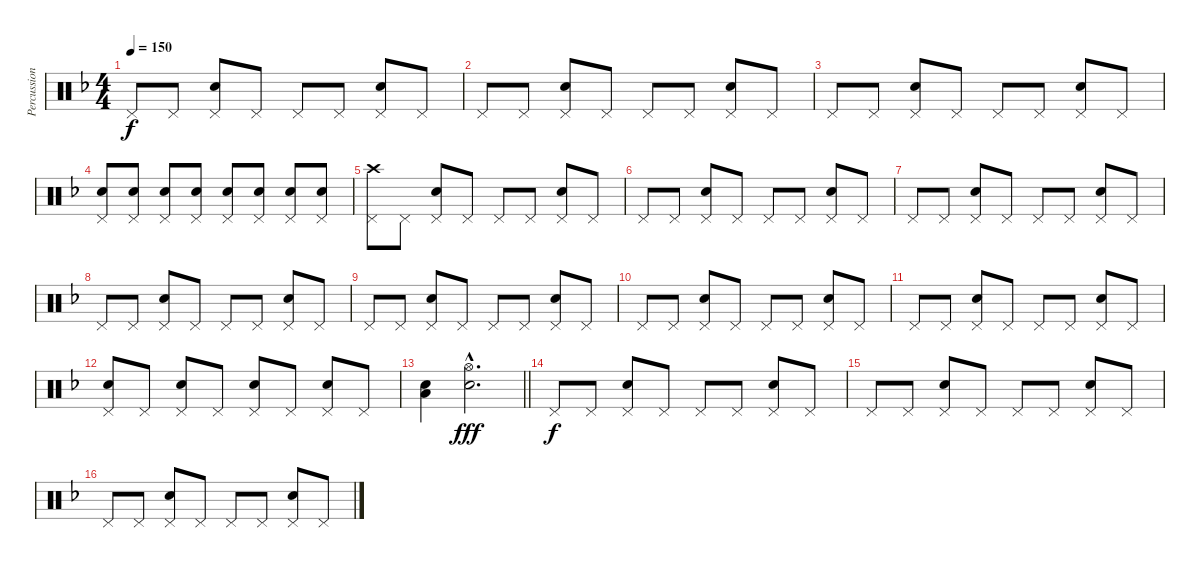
\track ("Percussions" "Percussion") {instrument percussion}
\staff {score}
\articulation defaults
\ts (4 4)
\tempo 150
\clef neutral
\ks f "Pedal Hi-Hat (hit)".8{dy f} "Pedal Hi-Hat (hit)".8
("Pedal Hi-Hat (hit)" "Snare (hit) 2").8 "Pedal Hi-Hat (hit)".8 "Pedal Hi-Hat (hit)".8 "Pedal Hi-Hat (hit)".8 ("Pedal Hi-Hat (hit)" "Snare (hit) 2").8 "Pedal Hi-Hat (hit)".8 |
"Pedal Hi-Hat (hit)".8 "Pedal Hi-Hat (hit)".8 ("Pedal Hi-Hat (hit)" "Snare (hit) 2").8 "Pedal Hi-Hat (hit)".8 "Pedal Hi-Hat (hit)".8 "Pedal Hi-Hat (hit)".8 ("Pedal Hi-Hat (hit)" "Snare (hit) 2").8 "Pedal Hi-Hat (hit)".8 |
"Pedal Hi-Hat (hit)".8 "Pedal Hi-Hat (hit)".8 ("Pedal Hi-Hat (hit)" "Snare (hit) 2").8 "Pedal Hi-Hat (hit)".8 "Pedal Hi-Hat (hit)".8 "Pedal Hi-Hat (hit)".8 ("Pedal Hi-Hat (hit)" "Snare (hit) 2").8 "Pedal Hi-Hat (hit)".8 |
("Pedal Hi-Hat (hit)" "Snare (hit) 2").8 ("Pedal Hi-Hat (hit)" "Snare (hit) 2").8 ("Pedal Hi-Hat (hit)" "Snare (hit) 2").8 ("Pedal Hi-Hat (hit)" "Snare (hit) 2").8 ("Pedal Hi-Hat (hit)" "Snare (hit) 2").8 ("Pedal Hi-Hat (hit)" "Snare (hit) 2").8 ("Pedal Hi-Hat (hit)" "Snare (hit) 2").8 ("Pedal Hi-Hat (hit)" "Snare (hit) 2").8 |
("Crash high (hit)" "Pedal Hi-Hat (hit)").8 "Pedal Hi-Hat (hit)".8 ("Pedal Hi-Hat (hit)" "Snare (hit) 2").8 "Pedal Hi-Hat (hit)".8 "Pedal Hi-Hat (hit)".8 "Pedal Hi-Hat (hit)".8 ("Pedal Hi-Hat (hit)" "Snare (hit) 2").8 "Pedal Hi-Hat (hit)".8 |
"Pedal Hi-Hat (hit)".8 "Pedal Hi-Hat (hit)".8 ("Pedal Hi-Hat (hit)" "Snare (hit) 2").8 "Pedal Hi-Hat (hit)".8 "Pedal Hi-Hat (hit)".8 "Pedal Hi-Hat (hit)".8 ("Pedal Hi-Hat (hit)" "Snare (hit) 2").8 "Pedal Hi-Hat (hit)".8 |
"Pedal Hi-Hat (hit)".8 "Pedal Hi-Hat (hit)".8 ("Pedal Hi-Hat (hit)" "Snare (hit) 2").8 "Pedal Hi-Hat (hit)".8 "Pedal Hi-Hat (hit)".8 "Pedal Hi-Hat (hit)".8 ("Pedal Hi-Hat (hit)" "Snare (hit) 2").8 "Pedal Hi-Hat (hit)".8 |
"Pedal Hi-Hat (hit)".8 "Pedal Hi-Hat (hit)".8 ("Pedal Hi-Hat (hit)" "Snare (hit) 2").8 "Pedal Hi-Hat (hit)".8 "Pedal Hi-Hat (hit)".8 "Pedal Hi-Hat (hit)".8 ("Pedal Hi-Hat (hit)" "Snare (hit) 2").8 "Pedal Hi-Hat (hit)".8 |
"Pedal Hi-Hat (hit)".8 "Pedal Hi-Hat (hit)".8 ("Pedal Hi-Hat (hit)" "Snare (hit) 2").8 "Pedal Hi-Hat (hit)".8 "Pedal Hi-Hat (hit)".8 "Pedal Hi-Hat (hit)".8 ("Pedal Hi-Hat (hit)" "Snare (hit) 2").8 "Pedal Hi-Hat (hit)".8 |
"Pedal Hi-Hat (hit)".8 "Pedal Hi-Hat (hit)".8 ("Pedal Hi-Hat (hit)" "Snare (hit) 2").8 "Pedal Hi-Hat (hit)".8 "Pedal Hi-Hat (hit)".8 "Pedal Hi-Hat (hit)".8 ("Pedal Hi-Hat (hit)" "Snare (hit) 2").8 "Pedal Hi-Hat (hit)".8 |
"Pedal Hi-Hat (hit)".8 "Pedal Hi-Hat (hit)".8 ("Pedal Hi-Hat (hit)" "Snare (hit) 2").8 "Pedal Hi-Hat (hit)".8 "Pedal Hi-Hat (hit)".8 "Pedal Hi-Hat (hit)".8 ("Pedal Hi-Hat (hit)" "Snare (hit) 2").8 "Pedal Hi-Hat (hit)".8 |
("Pedal Hi-Hat (hit)" "Snare (hit) 2").8 "Pedal Hi-Hat (hit)".8 ("Pedal Hi-Hat (hit)" "Snare (hit) 2").8 "Pedal Hi-Hat (hit)".8 ("Pedal Hi-Hat (hit)" "Snare (hit) 2").8 "Pedal Hi-Hat (hit)".8 ("Pedal Hi-Hat (hit)" "Snare (hit) 2").8 "Pedal Hi-Hat (hit)".8 |
\barLineRight lightlight
("Low Tom (hit)" "Snare (hit) 2").4 ("Electric Snare (hit)"{hac} "Hi-Hat (open)"{hac}).2{d dy fff} |
"Pedal Hi-Hat (hit)".8{dy f} "Pedal Hi-Hat (hit)".8 ("Pedal Hi-Hat (hit)" "Snare (hit) 2").8 "Pedal Hi-Hat (hit)".8 "Pedal Hi-Hat (hit)".8 "Pedal Hi-Hat (hit)".8 ("Pedal Hi-Hat (hit)" "Snare (hit) 2").8 "Pedal Hi-Hat (hit)".8 |
"Pedal Hi-Hat (hit)".8 "Pedal Hi-Hat (hit)".8 ("Pedal Hi-Hat (hit)" "Snare (hit) 2").8 "Pedal Hi-Hat (hit)".8 "Pedal Hi-Hat (hit)".8 "Pedal Hi-Hat (hit)".8 ("Pedal Hi-Hat (hit)" "Snare (hit) 2").8 "Pedal Hi-Hat (hit)".8 |
"Pedal Hi-Hat (hit)".8 "Pedal Hi-Hat (hit)".8 ("Pedal Hi-Hat (hit)" "Snare (hit) 2").8 "Pedal Hi-Hat (hit)".8 "Pedal Hi-Hat (hit)".8 "Pedal Hi-Hat (hit)".8 ("Pedal Hi-Hat (hit)" "Snare (hit) 2").8 "Pedal Hi-Hat (hit)".8
